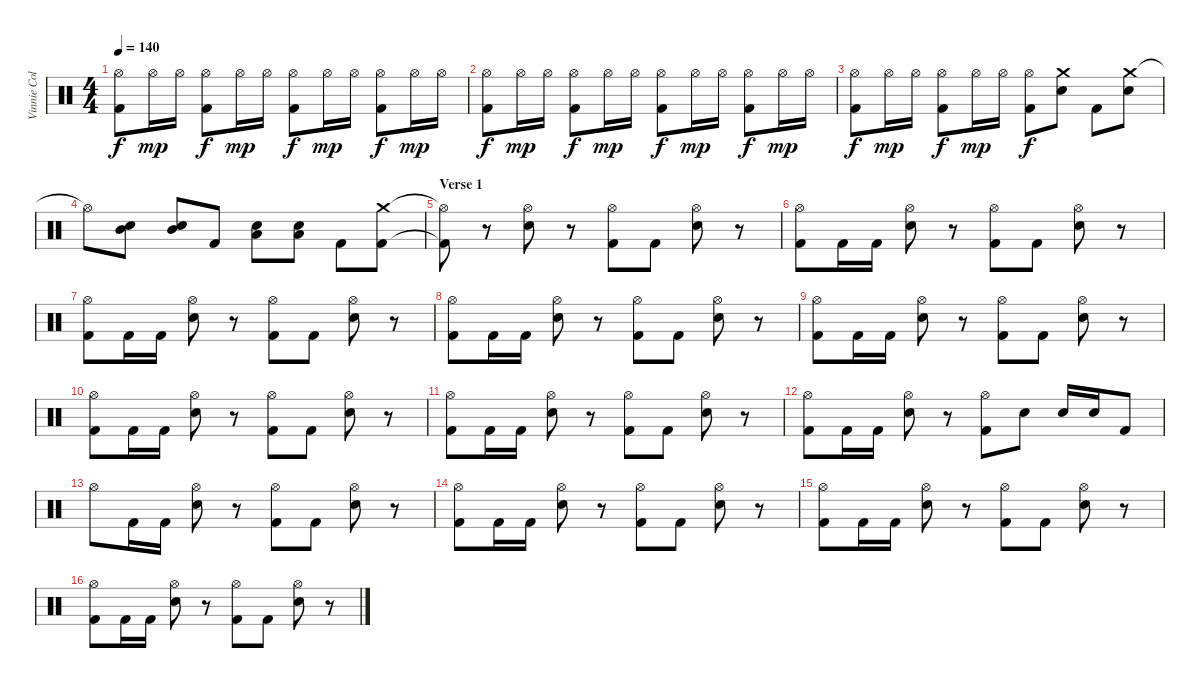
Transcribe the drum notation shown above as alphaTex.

\track ("Vinnie Colaiuta" "Vinnie Col") {instrument percussion}
\staff {score}
\articulation defaults
\ts (4 4)
\tempo 140
\clef neutral
\ks c
("Hi-Hat (open)" "Kick (hit) 2").8{dy f} "Hi-Hat (open)".16{dy mp} "Hi-Hat (open)".16 ("Hi-Hat (open)" "Kick (hit) 2").8{dy f} "Hi-Hat (open)".16{dy mp} "Hi-Hat (open)".16 ("Hi-Hat (open)" "Kick (hit) 2").8{dy f} "Hi-Hat (open)".16{dy mp} "Hi-Hat (open)".16 ("Hi-Hat (open)" "Kick (hit) 2").8{dy f} "Hi-Hat (open)".16{dy mp} "Hi-Hat (open)".16 |
("Hi-Hat (open)" "Kick (hit) 2").8{dy f} "Hi-Hat (open)".16{dy mp} "Hi-Hat (open)".16 ("Hi-Hat (open)" "Kick (hit) 2").8{dy f} "Hi-Hat (open)".16{dy mp} "Hi-Hat (open)".16 ("Hi-Hat (open)" "Kick (hit) 2").8{dy f} "Hi-Hat (open)".16{dy mp} "Hi-Hat (open)".16 ("Hi-Hat (open)" "Kick (hit) 2").8{dy f} "Hi-Hat (open)".16{dy mp} "Hi-Hat (open)".16 |
("Hi-Hat (open)" "Kick (hit) 2").8{dy f} "Hi-Hat (open)".16{dy mp} "Hi-Hat (open)".16 ("Hi-Hat (open)" "Kick (hit) 2").8{dy f} "Hi-Hat (open)".16{dy mp} "Hi-Hat (open)".16 ("Hi-Hat (open)" "Kick (hit) 2").8{dy f} ("Crash medium (hit)" "Snare (hit) 2").8 "Kick (hit) 2".8 ("Crash medium (hit)" "Snare (hit) 2").8 |
"Hi-Hat (open)"{t}.8 ("Mid Tom (hit)" "Snare (hit) 2").8 ("Mid Tom (hit)" "Snare (hit) 2").8 "Kick (hit) 2".8 ("Low Tom (hit)" "Snare (hit) 2").8 ("Low Tom (hit)" "Snare (hit) 2").8 "Kick (hit) 2".8 ("Crash medium (hit)" "Kick (hit) 2").8 |
\section ("" "Verse 1")
("Hi-Hat (open)"{t} "Kick (hit) 2"{t}).8 r.8 ("Hi-Hat (open)" "Snare (hit) 2").8 r.8 ("Hi-Hat (open)" "Kick (hit) 2").8 "Kick (hit) 2".8 ("Hi-Hat (open)" "Snare (hit) 2").8 r.8 |
("Hi-Hat (open)" "Kick (hit) 2").8 "Kick (hit) 2".16 "Kick (hit) 2".16 ("Hi-Hat (open)" "Snare (hit) 2").8 r.8 ("Hi-Hat (open)" "Kick (hit) 2").8 "Kick (hit) 2".8 ("Hi-Hat (open)" "Snare (hit) 2").8 r.8 |
("Hi-Hat (open)" "Kick (hit) 2").8 "Kick (hit) 2".16 "Kick (hit) 2".16 ("Hi-Hat (open)" "Snare (hit) 2").8 r.8 ("Hi-Hat (open)" "Kick (hit) 2").8 "Kick (hit) 2".8 ("Hi-Hat (open)" "Snare (hit) 2").8 r.8 |
("Hi-Hat (open)" "Kick (hit) 2").8 "Kick (hit) 2".16 "Kick (hit) 2".16 ("Hi-Hat (open)" "Snare (hit) 2").8 r.8 ("Hi-Hat (open)" "Kick (hit) 2").8 "Kick (hit) 2".8 ("Hi-Hat (open)" "Snare (hit) 2").8 r.8 |
("Hi-Hat (open)" "Kick (hit) 2").8 "Kick (hit) 2".16 "Kick (hit) 2".16 ("Hi-Hat (open)" "Snare (hit) 2").8 r.8 ("Hi-Hat (open)" "Kick (hit) 2").8 "Kick (hit) 2".8 ("Hi-Hat (open)" "Snare (hit) 2").8 r.8 |
("Hi-Hat (open)" "Kick (hit) 2").8 "Kick (hit) 2".16 "Kick (hit) 2".16 ("Hi-Hat (open)" "Snare (hit) 2").8 r.8 ("Hi-Hat (open)" "Kick (hit) 2").8 "Kick (hit) 2".8 ("Hi-Hat (open)" "Snare (hit) 2").8 r.8 |
("Hi-Hat (open)" "Kick (hit) 2").8 "Kick (hit) 2".16 "Kick (hit) 2".16 ("Hi-Hat (open)" "Snare (hit) 2").8 r.8 ("Hi-Hat (open)" "Kick (hit) 2").8 "Kick (hit) 2".8 ("Hi-Hat (open)" "Snare (hit) 2").8 r.8 |
("Hi-Hat (open)" "Kick (hit) 2").8 "Kick (hit) 2".16 "Kick (hit) 2".16 ("Hi-Hat (open)" "Snare (hit) 2").8 r.8 ("Hi-Hat (open)" "Kick (hit) 2").8 "Snare (hit) 2".8 "Snare (hit) 2".16 "Snare (hit) 2".16 "Kick (hit) 2".8 |
"Hi-Hat (open)".8 "Kick (hit) 2".16 "Kick (hit) 2".16 ("Hi-Hat (open)" "Snare (hit) 2").8 r.8 ("Hi-Hat (open)" "Kick (hit) 2").8 "Kick (hit) 2".8 ("Hi-Hat (open)" "Snare (hit) 2").8 r.8 |
("Hi-Hat (open)" "Kick (hit) 2").8 "Kick (hit) 2".16 "Kick (hit) 2".16 ("Hi-Hat (open)" "Snare (hit) 2").8 r.8 ("Hi-Hat (open)" "Kick (hit) 2").8 "Kick (hit) 2".8 ("Hi-Hat (open)" "Snare (hit) 2").8 r.8 |
("Hi-Hat (open)" "Kick (hit) 2").8 "Kick (hit) 2".16 "Kick (hit) 2".16 ("Hi-Hat (open)" "Snare (hit) 2").8 r.8 ("Hi-Hat (open)" "Kick (hit) 2").8 "Kick (hit) 2".8 ("Hi-Hat (open)" "Snare (hit) 2").8 r.8 |
("Hi-Hat (open)" "Kick (hit) 2").8 "Kick (hit) 2".16 "Kick (hit) 2".16 ("Hi-Hat (open)" "Snare (hit) 2").8 r.8 ("Hi-Hat (open)" "Kick (hit) 2").8 "Kick (hit) 2".8 ("Hi-Hat (open)" "Snare (hit) 2").8 r.8
